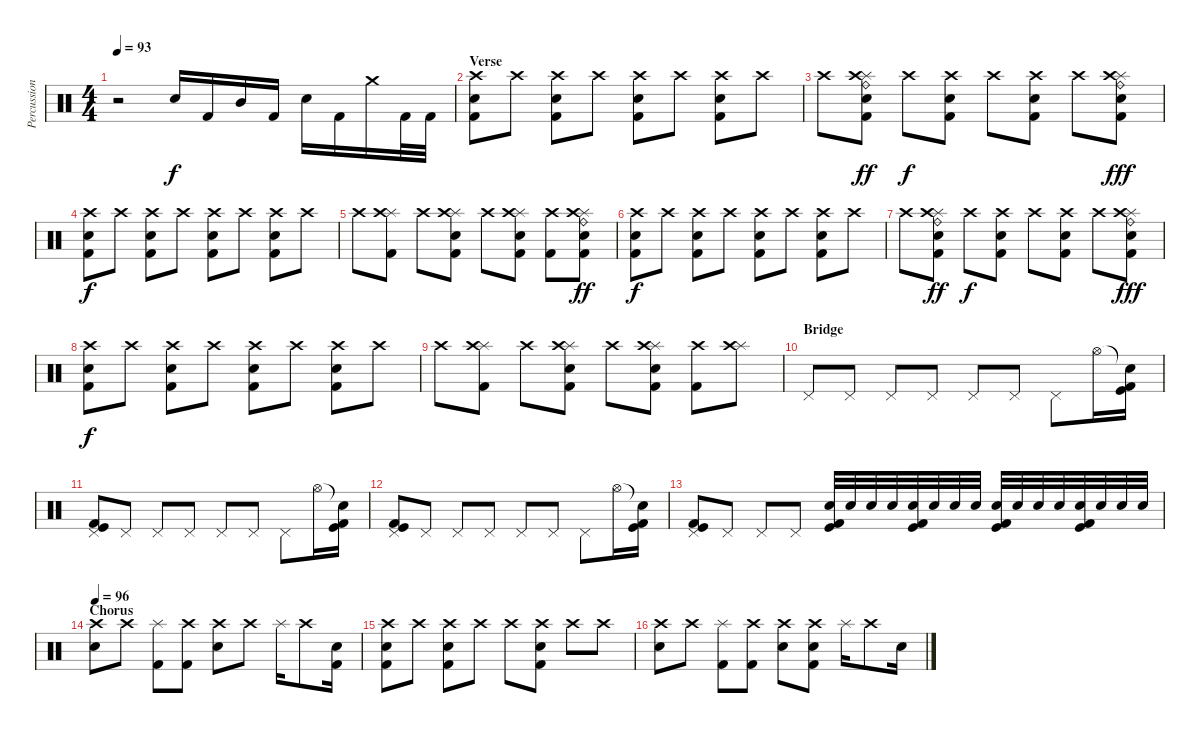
\track ("Percussion" "Percussion") {instrument percussion}
\staff {score}
\articulation defaults
\ts (4 4)
\tempo 93
\clef neutral
\ks c
r.2{dy f} "Snare (hit) 2".16 "Kick (hit) 2".16 "Mid Tom (hit)".16 "Kick (hit) 2".16 "Snare (hit) 2".16 "Kick (hit) 2".16 "Crash medium (hit)".16 "Kick (hit) 2".32 "Kick (hit) 2".32 |
\section ("" "Verse")
("Crash high (hit)" "Snare (hit) 2" "Kick (hit) 2").8 "Crash high (hit)".8 ("Crash high (hit)" "Snare (hit) 2" "Kick (hit) 2").8 "Crash high (hit)".8 ("Crash high (hit)" "Snare (hit) 2" "Kick (hit) 2").8 "Crash high (hit)".8 ("Crash high (hit)" "Snare (hit) 2" "Kick (hit) 2").8 "Crash high (hit)".8 |
"Crash high (hit)".8 ("Splash (hit)" "Ride (bell)" "Crash high (hit)" "Snare (hit) 2" "Kick (hit) 2").8{dy ff} "Crash high (hit)".8{dy f} ("Crash high (hit)" "Snare (hit) 2" "Kick (hit) 2").8 "Crash high (hit)".8 ("Crash high (hit)" "Snare (hit) 2" "Kick (hit) 2").8 "Crash high (hit)".8 ("Ride (bell)" "Splash (hit)" "Crash high (hit)" "Snare (hit) 2" "Kick (hit) 2").8{dy fff} |
("Crash high (hit)" "Snare (hit) 2" "Kick (hit) 2").8{dy f} "Crash high (hit)".8 ("Crash high (hit)" "Snare (hit) 2" "Kick (hit) 2").8 "Crash high (hit)".8 ("Crash high (hit)" "Snare (hit) 2" "Kick (hit) 2").8 "Crash high (hit)".8 ("Crash high (hit)" "Snare (hit) 2" "Kick (hit) 2").8 "Crash high (hit)".8 |
"Crash high (hit)".8 ("Splash (hit)" "Crash high (hit)" "Kick (hit) 2").8 "Crash high (hit)".8 ("Splash (hit)" "Crash high (hit)" "Snare (hit) 2" "Kick (hit) 2").8 "Crash high (hit)".8 ("Splash (hit)" "Crash high (hit)" "Snare (hit) 2" "Kick (hit) 2").8 ("Crash high (hit)" "Kick (hit) 2").8 ("Ride (bell)" "Splash (hit)" "Crash high (hit)" "Snare (hit) 2" "Kick (hit) 2").8{dy ff} |
("Crash high (hit)" "Snare (hit) 2" "Kick (hit) 2").8{dy f} "Crash high (hit)".8 ("Crash high (hit)" "Snare (hit) 2" "Kick (hit) 2").8 "Crash high (hit)".8 ("Crash high (hit)" "Snare (hit) 2" "Kick (hit) 2").8 "Crash high (hit)".8 ("Crash high (hit)" "Snare (hit) 2" "Kick (hit) 2").8 "Crash high (hit)".8 |
"Crash high (hit)".8 ("Splash (hit)" "Ride (bell)" "Crash high (hit)" "Snare (hit) 2" "Kick (hit) 2").8{dy ff} "Crash high (hit)".8{dy f} ("Crash high (hit)" "Snare (hit) 2" "Kick (hit) 2").8 "Crash high (hit)".8 ("Crash high (hit)" "Snare (hit) 2" "Kick (hit) 2").8 "Crash high (hit)".8 ("Ride (bell)" "Splash (hit)" "Crash high (hit)" "Snare (hit) 2" "Kick (hit) 2").8{dy fff} |
("Crash high (hit)" "Snare (hit) 2" "Kick (hit) 2").8{dy f} "Crash high (hit)".8 ("Crash high (hit)" "Snare (hit) 2" "Kick (hit) 2").8 "Crash high (hit)".8 ("Crash high (hit)" "Snare (hit) 2" "Kick (hit) 2").8 "Crash high (hit)".8 ("Crash high (hit)" "Snare (hit) 2" "Kick (hit) 2").8 "Crash high (hit)".8 |
"Crash high (hit)".8 ("Splash (hit)" "Crash high (hit)" "Kick (hit) 2").8 "Crash high (hit)".8 ("Splash (hit)" "Crash high (hit)" "Snare (hit) 2" "Kick (hit) 2").8 "Crash high (hit)".8 ("Splash (hit)" "Crash high (hit)" "Snare (hit) 2" "Kick (hit) 2").8 ("Crash high (hit)" "Kick (hit) 2").8 ("Splash (hit)" "Crash high (hit)").8 |
\section ("" "Bridge")
"Pedal Hi-Hat (hit)".8 "Pedal Hi-Hat (hit)".8 "Pedal Hi-Hat (hit)".8 "Pedal Hi-Hat (hit)".8 "Pedal Hi-Hat (hit)".8 "Pedal Hi-Hat (hit)".8 "Pedal Hi-Hat (hit)".8 "Hi-Hat (open)".16 ("Snare (hit)"{t} "Kick (hit) 2" "Kick (hit)").16 |
("Pedal Hi-Hat (hit)" "Kick (hit) 2" "Kick (hit)").8 "Pedal Hi-Hat (hit)".8 "Pedal Hi-Hat (hit)".8 "Pedal Hi-Hat (hit)".8 "Pedal Hi-Hat (hit)".8 "Pedal Hi-Hat (hit)".8 "Pedal Hi-Hat (hit)".8 "Hi-Hat (open)".16 ("Snare (hit)"{t} "Kick (hit) 2" "Kick (hit)").16 |
("Pedal Hi-Hat (hit)" "Kick (hit) 2" "Kick (hit)").8 "Pedal Hi-Hat (hit)".8 "Pedal Hi-Hat (hit)".8 "Pedal Hi-Hat (hit)".8 "Pedal Hi-Hat (hit)".8 "Pedal Hi-Hat (hit)".8 "Pedal Hi-Hat (hit)".8 "Hi-Hat (open)".16 ("Snare (hit)"{t} "Kick (hit) 2" "Kick (hit)").16 |
("Pedal Hi-Hat (hit)" "Kick (hit) 2" "Kick (hit)").8 "Pedal Hi-Hat (hit)".8 "Pedal Hi-Hat (hit)".8 "Pedal Hi-Hat (hit)".8 ("Kick (hit) 2" "Snare (hit) 2" "Kick (hit)").32 "Snare (hit) 2".32 "Snare (hit) 2".32 "Snare (hit) 2".32 ("Kick (hit) 2" "Snare (hit) 2" "Kick (hit)").32 "Snare (hit) 2".32 "Snare (hit) 2".32 "Snare (hit) 2".32 ("Kick (hit) 2" "Snare (hit) 2" "Kick (hit)").32 "Snare (hit) 2".32 "Snare (hit) 2".32 "Snare (hit) 2".32 ("Kick (hit) 2" "Snare (hit) 2" "Kick (hit)").32 "Snare (hit) 2".32 "Snare (hit) 2".32 "Snare (hit) 2".32 |
\section ("" "Chorus")
\tempo 96
("Snare (hit) 2" "Crash high (hit)").8 "Crash high (hit)".8 ("Splash (hit)" "Kick (hit) 2").8 ("Crash high (hit)" "Kick (hit) 2").8 ("Snare (hit) 2" "Crash high (hit)").8 "Crash high (hit)".8 "Splash (hit)".16 "Crash high (hit)".8 ("Snare (hit) 2" "Kick (hit) 2").16 |
("Snare (hit) 2" "Crash high (hit)" "Kick (hit) 2").8 "Crash high (hit)".8 ("Snare (hit) 2" "Crash high (hit)" "Kick (hit) 2").8 "Crash high (hit)".8 "Crash high (hit)".8 ("Snare (hit) 2" "Crash high (hit)" "Kick (hit) 2").8 "Crash high (hit)".8 "Crash high (hit)".8 |
("Snare (hit) 2" "Crash high (hit)").8 "Crash high (hit)".8 ("Splash (hit)" "Kick (hit) 2").8 ("Crash high (hit)" "Kick (hit) 2").8 ("Snare (hit) 2" "Crash high (hit)").8 ("Snare (hit) 2" "Crash high (hit)" "Kick (hit) 2").8 "Splash (hit)".16 "Crash high (hit)".8 "Snare (hit) 2".16
